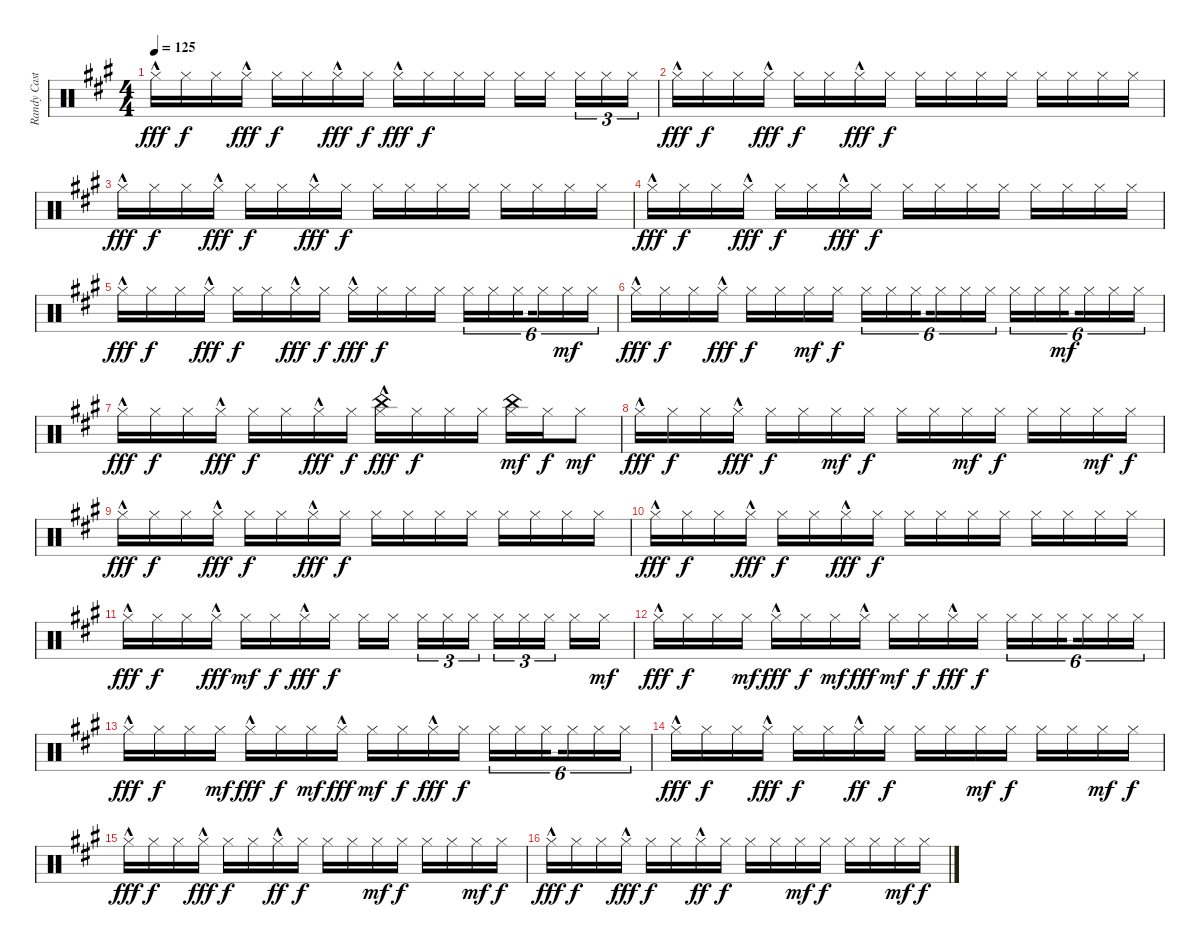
\track ("Randy Castillo - Drums" "Randy Cast") {instrument percussion}
\staff {score}
\articulation defaults
\ts (4 4)
\tempo 125
\clef neutral
\ks a "Hi-Hat (closed)"{hac}.16{dy fff} "Hi-Hat (closed)".16{dy f} "Hi-Hat (closed)".16 "Hi-Hat (closed)"{hac}.16{dy fff} "Hi-Hat (closed)".16{dy f} "Hi-Hat (closed)".16 "Hi-Hat (closed)"{hac}.16{dy fff} "Hi-Hat (closed)".16{dy f} "Hi-Hat (closed)"{hac}.16{dy fff} "Hi-Hat (closed)".16{dy f} "Hi-Hat (closed)".16 "Hi-Hat (closed)".16 "Hi-Hat (closed)".16 "Hi-Hat (closed)".16{beam splitsecondary} "Hi-Hat (closed)".16{tu (3 2)} "Hi-Hat (closed)".16{tu (3 2)} "Hi-Hat (closed)".16{tu (3 2)}
|
"Hi-Hat (closed)"{hac}.16{dy fff} "Hi-Hat (closed)".16{dy f} "Hi-Hat (closed)".16 "Hi-Hat (closed)"{hac}.16{dy fff} "Hi-Hat (closed)".16{dy f} "Hi-Hat (closed)".16 "Hi-Hat (closed)"{hac}.16{dy fff} "Hi-Hat (closed)".16{dy f} "Hi-Hat (closed)".16 "Hi-Hat (closed)".16 "Hi-Hat (closed)".16 "Hi-Hat (closed)".16 "Hi-Hat (closed)".16 "Hi-Hat (closed)".16 "Hi-Hat (closed)".16 "Hi-Hat (closed)".16 |
"Hi-Hat (closed)"{hac}.16{dy fff} "Hi-Hat (closed)".16{dy f} "Hi-Hat (closed)".16 "Hi-Hat (closed)"{hac}.16{dy fff} "Hi-Hat (closed)".16{dy f} "Hi-Hat (closed)".16 "Hi-Hat (closed)"{hac}.16{dy fff} "Hi-Hat (closed)".16{dy f} "Hi-Hat (closed)".16 "Hi-Hat (closed)".16 "Hi-Hat (closed)".16 "Hi-Hat (closed)".16 "Hi-Hat (closed)".16 "Hi-Hat (closed)".16 "Hi-Hat (closed)".16 "Hi-Hat (closed)".16 |
"Hi-Hat (closed)"{hac}.16{dy fff} "Hi-Hat (closed)".16{dy f} "Hi-Hat (closed)".16 "Hi-Hat (closed)"{hac}.16{dy fff} "Hi-Hat (closed)".16{dy f} "Hi-Hat (closed)".16 "Hi-Hat (closed)"{hac}.16{dy fff} "Hi-Hat (closed)".16{dy f} "Hi-Hat (closed)".16 "Hi-Hat (closed)".16 "Hi-Hat (closed)".16 "Hi-Hat (closed)".16 "Hi-Hat (closed)".16 "Hi-Hat (closed)".16 "Hi-Hat (closed)".16 "Hi-Hat (closed)".16 |
"Hi-Hat (closed)"{hac}.16{dy fff} "Hi-Hat (closed)".16{dy f} "Hi-Hat (closed)".16 "Hi-Hat (closed)"{hac}.16{dy fff} "Hi-Hat (closed)".16{dy f} "Hi-Hat (closed)".16 "Hi-Hat (closed)"{hac}.16{dy fff} "Hi-Hat (closed)".16{dy f} "Hi-Hat (closed)"{hac}.16{dy fff} "Hi-Hat (closed)".16{dy f} "Hi-Hat (closed)".16 "Hi-Hat (closed)".16 "Hi-Hat (closed)".16{tu (6 4)} "Hi-Hat (closed)".16{tu (6 4)} "Hi-Hat (closed)".16{tu (6 4) beam splitsecondary} "Hi-Hat (closed)".16{tu (6 4)} "Hi-Hat (closed)".16{tu (6 4) dy mf} "Hi-Hat (closed)".16{tu (6 4)} |
"Hi-Hat (closed)"{hac}.16{dy fff} "Hi-Hat (closed)".16{dy f} "Hi-Hat (closed)".16 "Hi-Hat (closed)"{hac}.16{dy fff} "Hi-Hat (closed)".16{dy f} "Hi-Hat (closed)".16 "Hi-Hat (closed)".16{dy mf} "Hi-Hat (closed)".16{dy f} "Hi-Hat (closed)".16{tu (6 4)} "Hi-Hat (closed)".16{tu (6 4)} "Hi-Hat (closed)".16{tu (6 4) beam splitsecondary} "Hi-Hat (closed)".16{tu (6 4)} "Hi-Hat (closed)".16{tu (6 4)} "Hi-Hat (closed)".16{tu (6 4)} "Hi-Hat (closed)".16{tu (6 4)} "Hi-Hat (closed)".16{tu (6 4)} "Hi-Hat (closed)".16{tu (6 4) dy mf beam splitsecondary} "Hi-Hat (closed)".16{tu (6 4)} "Hi-Hat (closed)".16{tu (6 4)} "Hi-Hat (closed)".16{tu (6 4)} |
"Hi-Hat (closed)"{hac}.16{dy fff} "Hi-Hat (closed)".16{dy f} "Hi-Hat (closed)".16 "Hi-Hat (closed)"{hac}.16{dy fff} "Hi-Hat (closed)".16{dy f} "Hi-Hat (closed)".16 "Hi-Hat (closed)"{hac}.16{dy fff} "Hi-Hat (closed)".16{dy f} ("China (hit)" "Hi-Hat (closed)"{hac}).16{dy fff} "Hi-Hat (closed)".16{dy f} "Hi-Hat (closed)".16 "Hi-Hat (closed)".16 ("China (hit)" "Hi-Hat (closed)").16{dy mf} "Hi-Hat (closed)".16{dy f} "Hi-Hat (closed)".8{dy mf} |
"Hi-Hat (closed)"{hac}.16{dy fff} "Hi-Hat (closed)".16{dy f} "Hi-Hat (closed)".16 "Hi-Hat (closed)"{hac}.16{dy fff} "Hi-Hat (closed)".16{dy f} "Hi-Hat (closed)".16 "Hi-Hat (closed)".16{dy mf} "Hi-Hat (closed)".16{dy f} "Hi-Hat (closed)".16 "Hi-Hat (closed)".16 "Hi-Hat (closed)".16{dy mf} "Hi-Hat (closed)".16{dy f} "Hi-Hat (closed)".16 "Hi-Hat (closed)".16 "Hi-Hat (closed)".16{dy mf} "Hi-Hat (closed)".16{dy f} |
"Hi-Hat (closed)"{hac}.16{dy fff} "Hi-Hat (closed)".16{dy f} "Hi-Hat (closed)".16 "Hi-Hat (closed)"{hac}.16{dy fff} "Hi-Hat (closed)".16{dy f} "Hi-Hat (closed)".16 "Hi-Hat (closed)"{hac}.16{dy fff} "Hi-Hat (closed)".16{dy f} "Hi-Hat (closed)".16 "Hi-Hat (closed)".16 "Hi-Hat (closed)".16 "Hi-Hat (closed)".16 "Hi-Hat (closed)".16 "Hi-Hat (closed)".16 "Hi-Hat (closed)".16 "Hi-Hat (closed)".16 |
"Hi-Hat (closed)"{hac}.16{dy fff} "Hi-Hat (closed)".16{dy f} "Hi-Hat (closed)".16 "Hi-Hat (closed)"{hac}.16{dy fff} "Hi-Hat (closed)".16{dy f} "Hi-Hat (closed)".16 "Hi-Hat (closed)"{hac}.16{dy fff} "Hi-Hat (closed)".16{dy f} "Hi-Hat (closed)".16 "Hi-Hat (closed)".16 "Hi-Hat (closed)".16 "Hi-Hat (closed)".16 "Hi-Hat (closed)".16 "Hi-Hat (closed)".16 "Hi-Hat (closed)".16 "Hi-Hat (closed)".16 |
"Hi-Hat (closed)"{hac}.16{dy fff} "Hi-Hat (closed)".16{dy f} "Hi-Hat (closed)".16 "Hi-Hat (closed)"{hac}.16{dy fff} "Hi-Hat (closed)".16{dy mf} "Hi-Hat (closed)".16{dy f} "Hi-Hat (closed)"{hac}.16{dy fff} "Hi-Hat (closed)".16{dy f} "Hi-Hat (closed)".16 "Hi-Hat (closed)".16{beam splitsecondary} "Hi-Hat (closed)".16{tu (3 2)} "Hi-Hat (closed)".16{tu (3 2)} "Hi-Hat (closed)".16{tu (3 2)} "Hi-Hat (closed)".16{tu (3 2)} "Hi-Hat (closed)".16{tu (3 2)} "Hi-Hat (closed)".16{tu (3 2) beam splitsecondary} "Hi-Hat (closed)".16 "Hi-Hat (closed)".16{dy mf} |
"Hi-Hat (closed)"{hac}.16{dy fff} "Hi-Hat (closed)".16{dy f} "Hi-Hat (closed)".16 "Hi-Hat (closed)".16{dy mf} "Hi-Hat (closed)"{hac}.16{dy fff} "Hi-Hat (closed)".16{dy f} "Hi-Hat (closed)".16{dy mf} "Hi-Hat (closed)"{hac}.16{dy fff} "Hi-Hat (closed)".16{dy mf} "Hi-Hat (closed)".16{dy f} "Hi-Hat (closed)"{hac}.16{dy fff} "Hi-Hat (closed)".16{dy f} "Hi-Hat (closed)".16{tu (6 4)} "Hi-Hat (closed)".16{tu (6 4)} "Hi-Hat (closed)".16{tu (6 4) beam splitsecondary} "Hi-Hat (closed)".16{tu (6 4)} "Hi-Hat (closed)".16{tu (6 4)} "Hi-Hat (closed)".16{tu (6 4)} |
"Hi-Hat (closed)"{hac}.16{dy fff} "Hi-Hat (closed)".16{dy f} "Hi-Hat (closed)".16 "Hi-Hat (closed)".16{dy mf} "Hi-Hat (closed)"{hac}.16{dy fff} "Hi-Hat (closed)".16{dy f} "Hi-Hat (closed)".16{dy mf} "Hi-Hat (closed)"{hac}.16{dy fff} "Hi-Hat (closed)".16{dy mf} "Hi-Hat (closed)".16{dy f} "Hi-Hat (closed)"{hac}.16{dy fff} "Hi-Hat (closed)".16{dy f} "Hi-Hat (closed)".16{tu (6 4)} "Hi-Hat (closed)".16{tu (6 4)} "Hi-Hat (closed)".16{tu (6 4) beam splitsecondary} "Hi-Hat (closed)".16{tu (6 4)} "Hi-Hat (closed)".16{tu (6 4)} "Hi-Hat (closed)".16{tu (6 4)} |
"Hi-Hat (closed)"{hac}.16{dy fff} "Hi-Hat (closed)".16{dy f} "Hi-Hat (closed)".16 "Hi-Hat (closed)"{hac}.16{dy fff} "Hi-Hat (closed)".16{dy f} "Hi-Hat (closed)".16 "Hi-Hat (closed)"{hac}.16{dy ff} "Hi-Hat (closed)".16{dy f} "Hi-Hat (closed)".16 "Hi-Hat (closed)".16 "Hi-Hat (closed)".16{dy mf} "Hi-Hat (closed)".16{dy f} "Hi-Hat (closed)".16 "Hi-Hat (closed)".16 "Hi-Hat (closed)".16{dy mf} "Hi-Hat (closed)".16{dy f} |
"Hi-Hat (closed)"{hac}.16{dy fff} "Hi-Hat (closed)".16{dy f} "Hi-Hat (closed)".16 "Hi-Hat (closed)"{hac}.16{dy fff} "Hi-Hat (closed)".16{dy f} "Hi-Hat (closed)".16 "Hi-Hat (closed)"{hac}.16{dy ff} "Hi-Hat (closed)".16{dy f} "Hi-Hat (closed)".16 "Hi-Hat (closed)".16 "Hi-Hat (closed)".16{dy mf} "Hi-Hat (closed)".16{dy f} "Hi-Hat (closed)".16 "Hi-Hat (closed)".16 "Hi-Hat (closed)".16{dy mf} "Hi-Hat (closed)".16{dy f} |
"Hi-Hat (closed)"{hac}.16{dy fff} "Hi-Hat (closed)".16{dy f} "Hi-Hat (closed)".16 "Hi-Hat (closed)"{hac}.16{dy fff} "Hi-Hat (closed)".16{dy f} "Hi-Hat (closed)".16 "Hi-Hat (closed)"{hac}.16{dy ff} "Hi-Hat (closed)".16{dy f} "Hi-Hat (closed)".16 "Hi-Hat (closed)".16 "Hi-Hat (closed)".16{dy mf} "Hi-Hat (closed)".16{dy f} "Hi-Hat (closed)".16 "Hi-Hat (closed)".16 "Hi-Hat (closed)".16{dy mf} "Hi-Hat (closed)".16{dy f}
